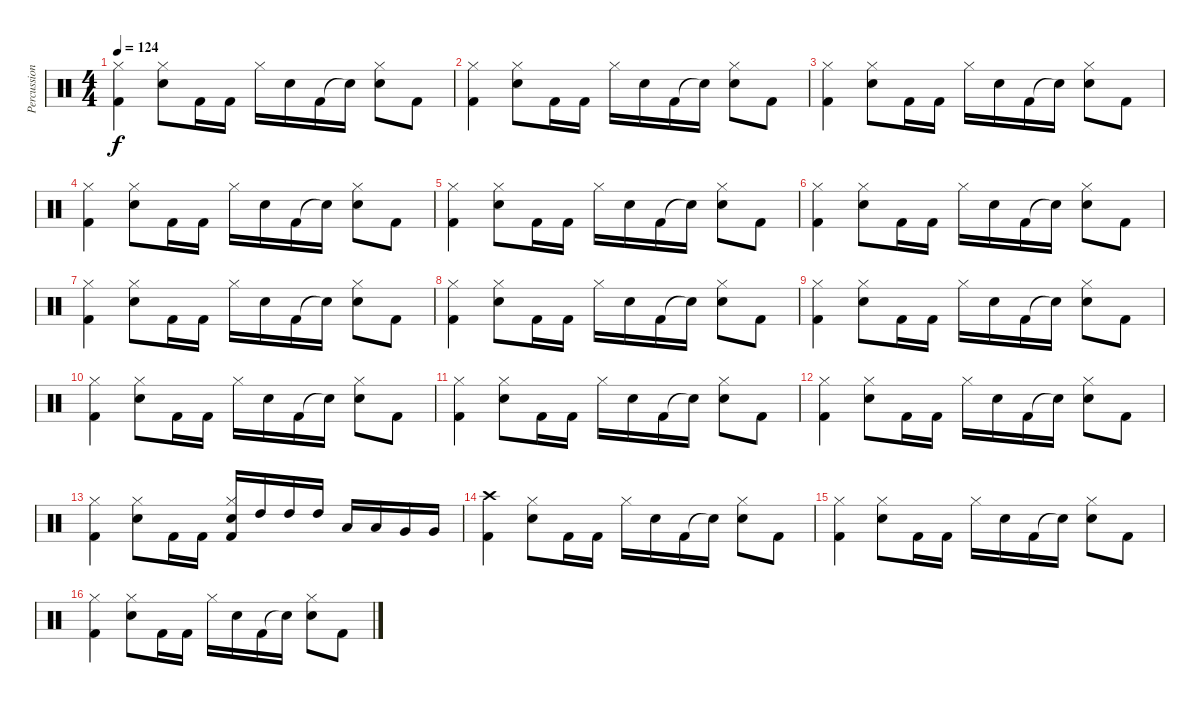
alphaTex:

\track ("Percussions" "Percussion") {instrument percussion}
\staff {score}
\articulation defaults
\ts (4 4)
\tempo 124
\clef neutral
\ks c
("Kick (hit) 2" "Hi-Hat (closed)").4{dy f} ("Electric Snare (hit)" "Hi-Hat (closed)").8 "Kick (hit) 2".16 "Kick (hit) 2".16 "Hi-Hat (closed)".16 "Electric Snare (hit)".16 "Kick (hit) 2".16 "Snare (hit)"{t}.16 ("Electric Snare (hit)" "Hi-Hat (closed)").8 "Kick (hit) 2".8 |
("Kick (hit) 2" "Hi-Hat (closed)").4 ("Electric Snare (hit)" "Hi-Hat (closed)").8 "Kick (hit) 2".16 "Kick (hit) 2".16 "Hi-Hat (closed)".16 "Electric Snare (hit)".16 "Kick (hit) 2".16 "Snare (hit)"{t}.16 ("Electric Snare (hit)" "Hi-Hat (closed)").8 "Kick (hit) 2".8 |
("Kick (hit) 2" "Hi-Hat (closed)").4 ("Electric Snare (hit)" "Hi-Hat (closed)").8 "Kick (hit) 2".16 "Kick (hit) 2".16 "Hi-Hat (closed)".16 "Electric Snare (hit)".16 "Kick (hit) 2".16 "Snare (hit)"{t}.16 ("Electric Snare (hit)" "Hi-Hat (closed)").8 "Kick (hit) 2".8 |
("Kick (hit) 2" "Hi-Hat (closed)").4 ("Electric Snare (hit)" "Hi-Hat (closed)").8 "Kick (hit) 2".16 "Kick (hit) 2".16 "Hi-Hat (closed)".16 "Electric Snare (hit)".16 "Kick (hit) 2".16 "Snare (hit)"{t}.16 ("Electric Snare (hit)" "Hi-Hat (closed)").8 "Kick (hit) 2".8 |
("Kick (hit) 2" "Hi-Hat (closed)").4 ("Electric Snare (hit)" "Hi-Hat (closed)").8 "Kick (hit) 2".16 "Kick (hit) 2".16 "Hi-Hat (closed)".16 "Electric Snare (hit)".16 "Kick (hit) 2".16 "Snare (hit)"{t}.16 ("Electric Snare (hit)" "Hi-Hat (closed)").8 "Kick (hit) 2".8 |
("Kick (hit) 2" "Hi-Hat (closed)").4 ("Electric Snare (hit)" "Hi-Hat (closed)").8 "Kick (hit) 2".16 "Kick (hit) 2".16 "Hi-Hat (closed)".16 "Electric Snare (hit)".16 "Kick (hit) 2".16 "Snare (hit)"{t}.16 ("Electric Snare (hit)" "Hi-Hat (closed)").8 "Kick (hit) 2".8 |
("Kick (hit) 2" "Hi-Hat (closed)").4 ("Electric Snare (hit)" "Hi-Hat (closed)").8 "Kick (hit) 2".16 "Kick (hit) 2".16 "Hi-Hat (closed)".16 "Electric Snare (hit)".16 "Kick (hit) 2".16 "Snare (hit)"{t}.16 ("Electric Snare (hit)" "Hi-Hat (closed)").8 "Kick (hit) 2".8 |
("Kick (hit) 2" "Hi-Hat (closed)").4 ("Electric Snare (hit)" "Hi-Hat (closed)").8 "Kick (hit) 2".16 "Kick (hit) 2".16 "Hi-Hat (closed)".16 "Electric Snare (hit)".16 "Kick (hit) 2".16 "Snare (hit)"{t}.16 ("Electric Snare (hit)" "Hi-Hat (closed)").8 "Kick (hit) 2".8 |
("Kick (hit) 2" "Hi-Hat (closed)").4 ("Electric Snare (hit)" "Hi-Hat (closed)").8 "Kick (hit) 2".16 "Kick (hit) 2".16 "Hi-Hat (closed)".16 "Electric Snare (hit)".16 "Kick (hit) 2".16 "Snare (hit)"{t}.16 ("Electric Snare (hit)" "Hi-Hat (closed)").8 "Kick (hit) 2".8 |
("Kick (hit) 2" "Hi-Hat (closed)").4 ("Electric Snare (hit)" "Hi-Hat (closed)").8 "Kick (hit) 2".16 "Kick (hit) 2".16 "Hi-Hat (closed)".16 "Electric Snare (hit)".16 "Kick (hit) 2".16 "Snare (hit)"{t}.16 ("Electric Snare (hit)" "Hi-Hat (closed)").8 "Kick (hit) 2".8 |
("Kick (hit) 2" "Hi-Hat (closed)").4 ("Electric Snare (hit)" "Hi-Hat (closed)").8 "Kick (hit) 2".16 "Kick (hit) 2".16 "Hi-Hat (closed)".16 "Electric Snare (hit)".16 "Kick (hit) 2".16 "Snare (hit)"{t}.16 ("Electric Snare (hit)" "Hi-Hat (closed)").8 "Kick (hit) 2".8 |
("Kick (hit) 2" "Hi-Hat (closed)").4 ("Electric Snare (hit)" "Hi-Hat (closed)").8 "Kick (hit) 2".16 "Kick (hit) 2".16 "Hi-Hat (closed)".16 "Electric Snare (hit)".16 "Kick (hit) 2".16 "Snare (hit)"{t}.16 ("Electric Snare (hit)" "Hi-Hat (closed)").8 "Kick (hit) 2".8 |
("Kick (hit) 2" "Hi-Hat (closed)").4 ("Electric Snare (hit)" "Hi-Hat (closed)").8 "Kick (hit) 2".16 "Kick (hit) 2".16 ("Kick (hit) 2" "Electric Snare (hit)" "Hi-Hat (closed)").16 "High Tom (hit)".16 "High Tom (hit)".16 "High Tom (hit)".16 "Low Tom (hit)".16 "Low Tom (hit)".16 "Very Low Tom (hit)".16 "Very Low Tom (hit)".16 |
("Kick (hit) 2" "Crash high (hit)").4 ("Electric Snare (hit)" "Hi-Hat (closed)").8 "Kick (hit) 2".16 "Kick (hit) 2".16 "Hi-Hat (closed)".16 "Electric Snare (hit)".16 "Kick (hit) 2".16 "Snare (hit)"{t}.16 ("Electric Snare (hit)" "Hi-Hat (closed)").8 "Kick (hit) 2".8 |
("Kick (hit) 2" "Hi-Hat (closed)").4 ("Electric Snare (hit)" "Hi-Hat (closed)").8 "Kick (hit) 2".16 "Kick (hit) 2".16 "Hi-Hat (closed)".16 "Electric Snare (hit)".16 "Kick (hit) 2".16 "Snare (hit)"{t}.16 ("Electric Snare (hit)" "Hi-Hat (closed)").8 "Kick (hit) 2".8 |
("Kick (hit) 2" "Hi-Hat (closed)").4 ("Electric Snare (hit)" "Hi-Hat (closed)").8 "Kick (hit) 2".16 "Kick (hit) 2".16 "Hi-Hat (closed)".16 "Electric Snare (hit)".16 "Kick (hit) 2".16 "Snare (hit)"{t}.16 ("Electric Snare (hit)" "Hi-Hat (closed)").8 "Kick (hit) 2".8
